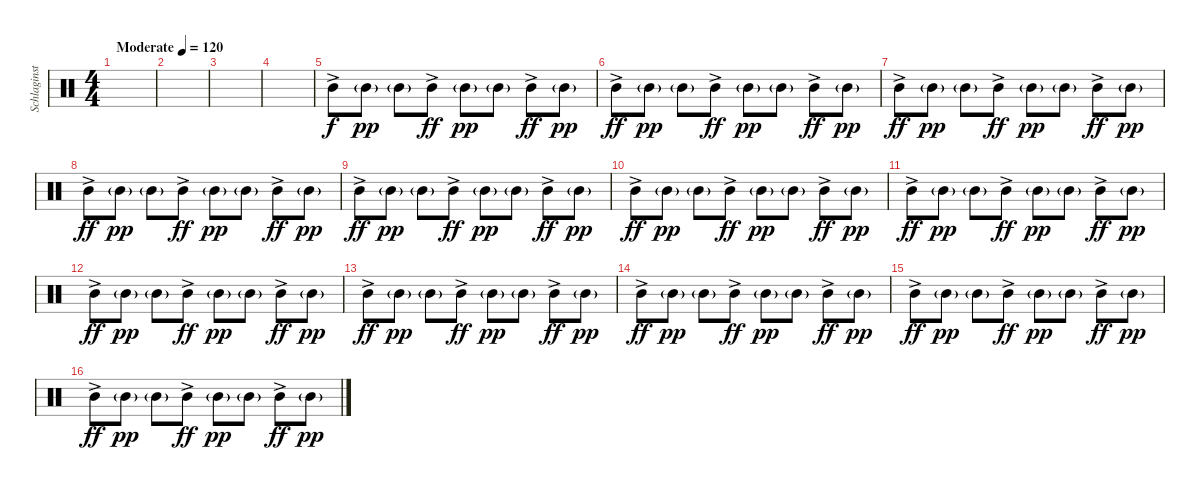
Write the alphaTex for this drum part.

\track ("Schlaginstrumente - Auswahl" "Schlaginst") {instrument percussion}
\staff {score}
\articulation defaults
\ts (4 4)
\tempo (120 "Moderate")
\clef neutral
\ks c
|
|
|
|
"Mid Tom (hit)"{ac}.8 "Mid Tom (hit)"{g}.8{dy pp} "Mid Tom (hit)"{g}.8 "Mid Tom (hit)"{ac}.8{dy ff} "Mid Tom (hit)"{g}.8{dy pp} "Mid Tom (hit)"{g}.8 "Mid Tom (hit)"{ac}.8{dy ff} "Mid Tom (hit)"{g}.8{dy pp} |
"Mid Tom (hit)"{ac}.8{dy ff} "Mid Tom (hit)"{g}.8{dy pp} "Mid Tom (hit)"{g}.8 "Mid Tom (hit)"{ac}.8{dy ff} "Mid Tom (hit)"{g}.8{dy pp} "Mid Tom (hit)"{g}.8 "Mid Tom (hit)"{ac}.8{dy ff} "Mid Tom (hit)"{g}.8{dy pp} |
"Mid Tom (hit)"{ac}.8{dy ff} "Mid Tom (hit)"{g}.8{dy pp} "Mid Tom (hit)"{g}.8 "Mid Tom (hit)"{ac}.8{dy ff} "Mid Tom (hit)"{g}.8{dy pp} "Mid Tom (hit)"{g}.8 "Mid Tom (hit)"{ac}.8{dy ff} "Mid Tom (hit)"{g}.8{dy pp} |
"Mid Tom (hit)"{ac}.8{dy ff} "Mid Tom (hit)"{g}.8{dy pp} "Mid Tom (hit)"{g}.8 "Mid Tom (hit)"{ac}.8{dy ff} "Mid Tom (hit)"{g}.8{dy pp} "Mid Tom (hit)"{g}.8 "Mid Tom (hit)"{ac}.8{dy ff} "Mid Tom (hit)"{g}.8{dy pp} |
"Mid Tom (hit)"{ac}.8{dy ff} "Mid Tom (hit)"{g}.8{dy pp} "Mid Tom (hit)"{g}.8 "Mid Tom (hit)"{ac}.8{dy ff} "Mid Tom (hit)"{g}.8{dy pp} "Mid Tom (hit)"{g}.8 "Mid Tom (hit)"{ac}.8{dy ff} "Mid Tom (hit)"{g}.8{dy pp} |
"Mid Tom (hit)"{ac}.8{dy ff} "Mid Tom (hit)"{g}.8{dy pp} "Mid Tom (hit)"{g}.8 "Mid Tom (hit)"{ac}.8{dy ff} "Mid Tom (hit)"{g}.8{dy pp} "Mid Tom (hit)"{g}.8 "Mid Tom (hit)"{ac}.8{dy ff} "Mid Tom (hit)"{g}.8{dy pp} |
"Mid Tom (hit)"{ac}.8{dy ff} "Mid Tom (hit)"{g}.8{dy pp} "Mid Tom (hit)"{g}.8 "Mid Tom (hit)"{ac}.8{dy ff} "Mid Tom (hit)"{g}.8{dy pp} "Mid Tom (hit)"{g}.8 "Mid Tom (hit)"{ac}.8{dy ff} "Mid Tom (hit)"{g}.8{dy pp} |
"Mid Tom (hit)"{ac}.8{dy ff} "Mid Tom (hit)"{g}.8{dy pp} "Mid Tom (hit)"{g}.8 "Mid Tom (hit)"{ac}.8{dy ff} "Mid Tom (hit)"{g}.8{dy pp} "Mid Tom (hit)"{g}.8 "Mid Tom (hit)"{ac}.8{dy ff} "Mid Tom (hit)"{g}.8{dy pp} |
"Mid Tom (hit)"{ac}.8{dy ff} "Mid Tom (hit)"{g}.8{dy pp} "Mid Tom (hit)"{g}.8 "Mid Tom (hit)"{ac}.8{dy ff} "Mid Tom (hit)"{g}.8{dy pp} "Mid Tom (hit)"{g}.8 "Mid Tom (hit)"{ac}.8{dy ff} "Mid Tom (hit)"{g}.8{dy pp} |
"Mid Tom (hit)"{ac}.8{dy ff} "Mid Tom (hit)"{g}.8{dy pp} "Mid Tom (hit)"{g}.8 "Mid Tom (hit)"{ac}.8{dy ff} "Mid Tom (hit)"{g}.8{dy pp} "Mid Tom (hit)"{g}.8 "Mid Tom (hit)"{ac}.8{dy ff} "Mid Tom (hit)"{g}.8{dy pp} |
"Mid Tom (hit)"{ac}.8{dy ff} "Mid Tom (hit)"{g}.8{dy pp} "Mid Tom (hit)"{g}.8 "Mid Tom (hit)"{ac}.8{dy ff} "Mid Tom (hit)"{g}.8{dy pp} "Mid Tom (hit)"{g}.8 "Mid Tom (hit)"{ac}.8{dy ff} "Mid Tom (hit)"{g}.8{dy pp} |
"Mid Tom (hit)"{ac}.8{dy ff} "Mid Tom (hit)"{g}.8{dy pp} "Mid Tom (hit)"{g}.8 "Mid Tom (hit)"{ac}.8{dy ff} "Mid Tom (hit)"{g}.8{dy pp} "Mid Tom (hit)"{g}.8 "Mid Tom (hit)"{ac}.8{dy ff} "Mid Tom (hit)"{g}.8{dy pp}
